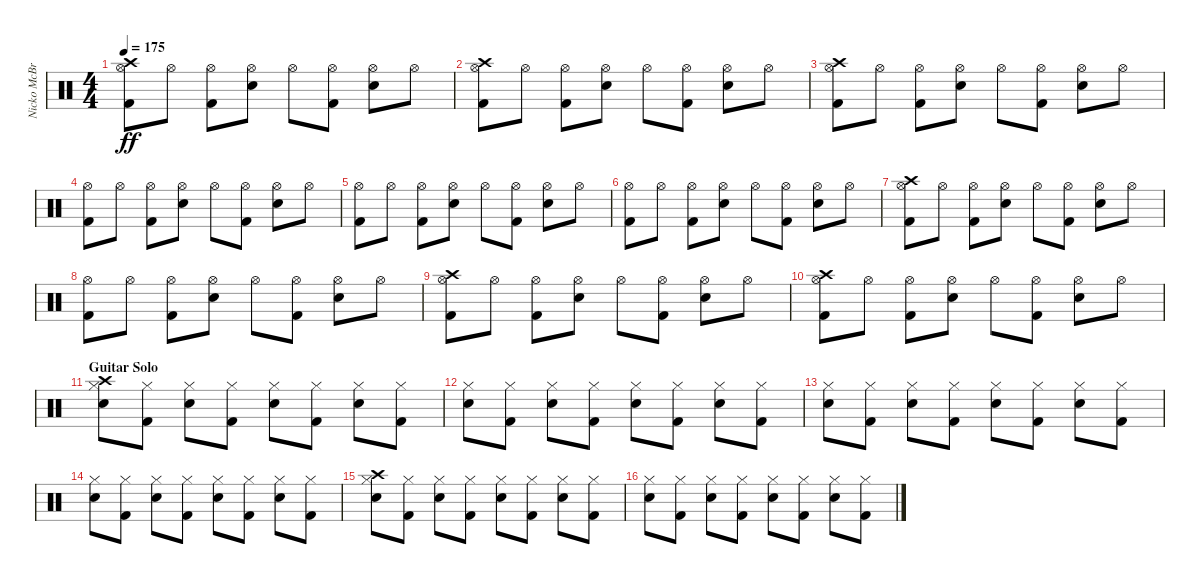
\track ("Nicko McBrain" "Nicko McBr") {instrument percussion}
\staff {score}
\articulation defaults
\ts (4 4)
\tempo 175
\clef neutral
\ks c
("Kick (hit) 2" "Hi-Hat (open)" "Crash high (hit)").8{dy ff} "Hi-Hat (open)".8 ("Kick (hit) 2" "Hi-Hat (open)").8 ("Snare (hit) 2" "Hi-Hat (open)").8 "Hi-Hat (open)".8 ("Kick (hit) 2" "Hi-Hat (open)").8 ("Snare (hit) 2" "Hi-Hat (open)").8 "Hi-Hat (open)".8 |
("Kick (hit) 2" "Hi-Hat (open)" "Crash high (hit)").8 "Hi-Hat (open)".8 ("Kick (hit) 2" "Hi-Hat (open)").8 ("Snare (hit) 2" "Hi-Hat (open)").8 "Hi-Hat (open)".8 ("Kick (hit) 2" "Hi-Hat (open)").8 ("Snare (hit) 2" "Hi-Hat (open)").8 "Hi-Hat (open)".8 |
("Kick (hit) 2" "Hi-Hat (open)" "Crash high (hit)").8 "Hi-Hat (open)".8 ("Kick (hit) 2" "Hi-Hat (open)").8 ("Snare (hit) 2" "Hi-Hat (open)").8 "Hi-Hat (open)".8 ("Kick (hit) 2" "Hi-Hat (open)").8 ("Snare (hit) 2" "Hi-Hat (open)").8 "Hi-Hat (open)".8 |
("Kick (hit) 2" "Hi-Hat (open)").8 "Hi-Hat (open)".8 ("Kick (hit) 2" "Hi-Hat (open)").8 ("Snare (hit) 2" "Hi-Hat (open)").8 "Hi-Hat (open)".8 ("Kick (hit) 2" "Hi-Hat (open)").8 ("Snare (hit) 2" "Hi-Hat (open)").8 "Hi-Hat (open)".8 |
("Kick (hit) 2" "Hi-Hat (open)").8 "Hi-Hat (open)".8 ("Kick (hit) 2" "Hi-Hat (open)").8 ("Snare (hit) 2" "Hi-Hat (open)").8 "Hi-Hat (open)".8 ("Kick (hit) 2" "Hi-Hat (open)").8 ("Snare (hit) 2" "Hi-Hat (open)").8 "Hi-Hat (open)".8 |
("Kick (hit) 2" "Hi-Hat (open)").8 "Hi-Hat (open)".8 ("Kick (hit) 2" "Hi-Hat (open)").8 ("Snare (hit) 2" "Hi-Hat (open)").8 "Hi-Hat (open)".8 ("Kick (hit) 2" "Hi-Hat (open)").8 ("Snare (hit) 2" "Hi-Hat (open)").8 "Hi-Hat (open)".8 |
("Kick (hit) 2" "Hi-Hat (open)" "Crash high (hit)").8 "Hi-Hat (open)".8 ("Kick (hit) 2" "Hi-Hat (open)").8 ("Snare (hit) 2" "Hi-Hat (open)").8 "Hi-Hat (open)".8 ("Kick (hit) 2" "Hi-Hat (open)").8 ("Snare (hit) 2" "Hi-Hat (open)").8 "Hi-Hat (open)".8 |
("Kick (hit) 2" "Hi-Hat (open)").8 "Hi-Hat (open)".8 ("Kick (hit) 2" "Hi-Hat (open)").8 ("Snare (hit) 2" "Hi-Hat (open)").8 "Hi-Hat (open)".8 ("Kick (hit) 2" "Hi-Hat (open)").8 ("Snare (hit) 2" "Hi-Hat (open)").8 "Hi-Hat (open)".8 |
("Kick (hit) 2" "Hi-Hat (open)" "Crash high (hit)").8 "Hi-Hat (open)".8 ("Kick (hit) 2" "Hi-Hat (open)").8 ("Snare (hit) 2" "Hi-Hat (open)").8 "Hi-Hat (open)".8 ("Kick (hit) 2" "Hi-Hat (open)").8 ("Snare (hit) 2" "Hi-Hat (open)").8 "Hi-Hat (open)".8 |
("Kick (hit) 2" "Hi-Hat (open)" "Crash high (hit)").8 "Hi-Hat (open)".8 ("Kick (hit) 2" "Hi-Hat (open)").8 ("Snare (hit) 2" "Hi-Hat (open)").8 "Hi-Hat (open)".8 ("Kick (hit) 2" "Hi-Hat (open)").8 ("Snare (hit) 2" "Hi-Hat (open)").8 "Hi-Hat (open)".8 |
\section ("" "Guitar Solo")
("Snare (hit) 2" "Hi-Hat (closed)" "Crash high (hit)").8 ("Kick (hit) 2" "Hi-Hat (closed)").8 ("Snare (hit) 2" "Hi-Hat (closed)").8 ("Kick (hit) 2" "Hi-Hat (closed)").8 ("Snare (hit) 2" "Hi-Hat (closed)").8 ("Kick (hit) 2" "Hi-Hat (closed)").8 ("Snare (hit) 2" "Hi-Hat (closed)").8 ("Kick (hit) 2" "Hi-Hat (closed)").8 |
("Snare (hit) 2" "Hi-Hat (closed)").8 ("Kick (hit) 2" "Hi-Hat (closed)").8 ("Snare (hit) 2" "Hi-Hat (closed)").8 ("Kick (hit) 2" "Hi-Hat (closed)").8 ("Snare (hit) 2" "Hi-Hat (closed)").8 ("Kick (hit) 2" "Hi-Hat (closed)").8 ("Snare (hit) 2" "Hi-Hat (closed)").8 ("Kick (hit) 2" "Hi-Hat (closed)").8 |
("Snare (hit) 2" "Hi-Hat (closed)").8 ("Kick (hit) 2" "Hi-Hat (closed)").8 ("Snare (hit) 2" "Hi-Hat (closed)").8 ("Kick (hit) 2" "Hi-Hat (closed)").8 ("Snare (hit) 2" "Hi-Hat (closed)").8 ("Kick (hit) 2" "Hi-Hat (closed)").8 ("Snare (hit) 2" "Hi-Hat (closed)").8 ("Kick (hit) 2" "Hi-Hat (closed)").8 |
("Snare (hit) 2" "Hi-Hat (closed)").8 ("Kick (hit) 2" "Hi-Hat (closed)").8 ("Snare (hit) 2" "Hi-Hat (closed)").8 ("Kick (hit) 2" "Hi-Hat (closed)").8 ("Snare (hit) 2" "Hi-Hat (closed)").8 ("Kick (hit) 2" "Hi-Hat (closed)").8 ("Snare (hit) 2" "Hi-Hat (closed)").8 ("Kick (hit) 2" "Hi-Hat (closed)").8 |
("Snare (hit) 2" "Hi-Hat (closed)" "Crash high (hit)").8 ("Kick (hit) 2" "Hi-Hat (closed)").8 ("Snare (hit) 2" "Hi-Hat (closed)").8 ("Kick (hit) 2" "Hi-Hat (closed)").8 ("Snare (hit) 2" "Hi-Hat (closed)").8 ("Kick (hit) 2" "Hi-Hat (closed)").8 ("Snare (hit) 2" "Hi-Hat (closed)").8 ("Kick (hit) 2" "Hi-Hat (closed)").8 |
("Snare (hit) 2" "Hi-Hat (closed)").8 ("Kick (hit) 2" "Hi-Hat (closed)").8 ("Snare (hit) 2" "Hi-Hat (closed)").8 ("Kick (hit) 2" "Hi-Hat (closed)").8 ("Snare (hit) 2" "Hi-Hat (closed)").8 ("Kick (hit) 2" "Hi-Hat (closed)").8 ("Snare (hit) 2" "Hi-Hat (closed)").8 ("Kick (hit) 2" "Hi-Hat (closed)").8
